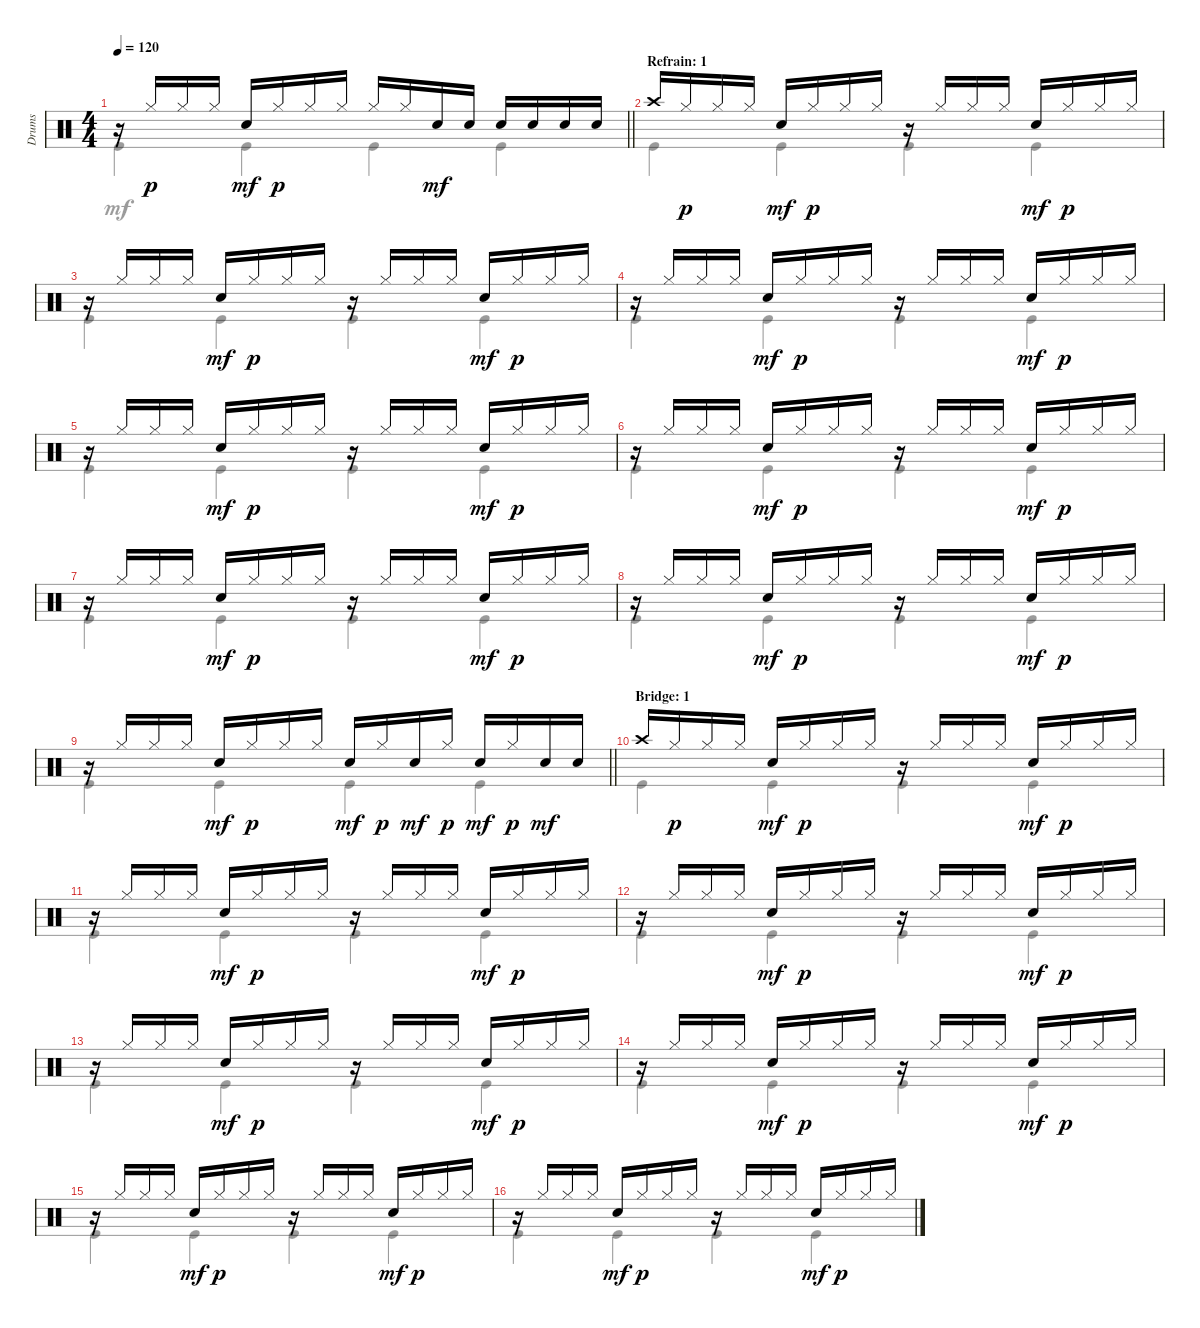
\track ("Drums" "Drums") {instrument percussion}
\staff {score}
\articulation defaults
\voice
\ts (4 4)
\tempo 120
\clef neutral
\barLineRight lightlight
\ks c
r.16{dy p} "Hi-Hat (closed)".16 "Hi-Hat (closed)".16 "Hi-Hat (closed)".16 "Snare (hit) 2".16{dy mf} "Hi-Hat (closed)".16{dy p} "Hi-Hat (closed)".16 "Hi-Hat (closed)".16 "Hi-Hat (closed)".16 "Hi-Hat (closed)".16 "Snare (hit) 2".16{dy mf} "Snare (hit) 2".16 "Snare (hit) 2".16 "Snare (hit) 2".16 "Snare (hit) 2".16 "Snare (hit) 2".16 |
\section ("" "Refrain: 1")
"Crash high (hit)".16 "Hi-Hat (closed)".16{dy p} "Hi-Hat (closed)".16 "Hi-Hat (closed)".16 "Snare (hit) 2".16{dy mf} "Hi-Hat (closed)".16{dy p} "Hi-Hat (closed)".16 "Hi-Hat (closed)".16 r.16 "Hi-Hat (closed)".16 "Hi-Hat (closed)".16 "Hi-Hat (closed)".16 "Snare (hit) 2".16{dy mf} "Hi-Hat (closed)".16{dy p} "Hi-Hat (closed)".16 "Hi-Hat (closed)".16 |
r.16 "Hi-Hat (closed)".16 "Hi-Hat (closed)".16 "Hi-Hat (closed)".16 "Snare (hit) 2".16{dy mf} "Hi-Hat (closed)".16{dy p} "Hi-Hat (closed)".16 "Hi-Hat (closed)".16 r.16 "Hi-Hat (closed)".16 "Hi-Hat (closed)".16 "Hi-Hat (closed)".16 "Snare (hit) 2".16{dy mf} "Hi-Hat (closed)".16{dy p} "Hi-Hat (closed)".16 "Hi-Hat (closed)".16 |
r.16 "Hi-Hat (closed)".16 "Hi-Hat (closed)".16 "Hi-Hat (closed)".16 "Snare (hit) 2".16{dy mf} "Hi-Hat (closed)".16{dy p} "Hi-Hat (closed)".16 "Hi-Hat (closed)".16 r.16 "Hi-Hat (closed)".16 "Hi-Hat (closed)".16 "Hi-Hat (closed)".16 "Snare (hit) 2".16{dy mf} "Hi-Hat (closed)".16{dy p} "Hi-Hat (closed)".16 "Hi-Hat (closed)".16 |
r.16 "Hi-Hat (closed)".16 "Hi-Hat (closed)".16 "Hi-Hat (closed)".16 "Snare (hit) 2".16{dy mf} "Hi-Hat (closed)".16{dy p} "Hi-Hat (closed)".16 "Hi-Hat (closed)".16 r.16 "Hi-Hat (closed)".16 "Hi-Hat (closed)".16 "Hi-Hat (closed)".16 "Snare (hit) 2".16{dy mf} "Hi-Hat (closed)".16{dy p} "Hi-Hat (closed)".16 "Hi-Hat (closed)".16 |
r.16 "Hi-Hat (closed)".16 "Hi-Hat (closed)".16 "Hi-Hat (closed)".16 "Snare (hit) 2".16{dy mf} "Hi-Hat (closed)".16{dy p} "Hi-Hat (closed)".16 "Hi-Hat (closed)".16 r.16 "Hi-Hat (closed)".16 "Hi-Hat (closed)".16 "Hi-Hat (closed)".16 "Snare (hit) 2".16{dy mf} "Hi-Hat (closed)".16{dy p} "Hi-Hat (closed)".16 "Hi-Hat (closed)".16 |
r.16 "Hi-Hat (closed)".16 "Hi-Hat (closed)".16 "Hi-Hat (closed)".16 "Snare (hit) 2".16{dy mf} "Hi-Hat (closed)".16{dy p} "Hi-Hat (closed)".16 "Hi-Hat (closed)".16 r.16 "Hi-Hat (closed)".16 "Hi-Hat (closed)".16 "Hi-Hat (closed)".16 "Snare (hit) 2".16{dy mf} "Hi-Hat (closed)".16{dy p} "Hi-Hat (closed)".16 "Hi-Hat (closed)".16 |
r.16 "Hi-Hat (closed)".16 "Hi-Hat (closed)".16 "Hi-Hat (closed)".16 "Snare (hit) 2".16{dy mf} "Hi-Hat (closed)".16{dy p} "Hi-Hat (closed)".16 "Hi-Hat (closed)".16 r.16 "Hi-Hat (closed)".16 "Hi-Hat (closed)".16 "Hi-Hat (closed)".16 "Snare (hit) 2".16{dy mf} "Hi-Hat (closed)".16{dy p} "Hi-Hat (closed)".16 "Hi-Hat (closed)".16 |
\barLineRight lightlight
r.16 "Hi-Hat (closed)".16 "Hi-Hat (closed)".16 "Hi-Hat (closed)".16 "Snare (hit) 2".16{dy mf} "Hi-Hat (closed)".16{dy p} "Hi-Hat (closed)".16 "Hi-Hat (closed)".16 "Snare (hit) 2".16{dy mf} "Hi-Hat (closed)".16{dy p} "Snare (hit) 2".16{dy mf} "Hi-Hat (closed)".16{dy p} "Snare (hit) 2".16{dy mf} "Hi-Hat (closed)".16{dy p} "Snare (hit) 2".16{dy mf} "Snare (hit) 2".16 |
\section ("" "Bridge: 1")
"Crash high (hit)".16 "Hi-Hat (closed)".16{dy p} "Hi-Hat (closed)".16 "Hi-Hat (closed)".16 "Snare (hit) 2".16{dy mf} "Hi-Hat (closed)".16{dy p} "Hi-Hat (closed)".16 "Hi-Hat (closed)".16 r.16 "Hi-Hat (closed)".16 "Hi-Hat (closed)".16 "Hi-Hat (closed)".16 "Snare (hit) 2".16{dy mf} "Hi-Hat (closed)".16{dy p} "Hi-Hat (closed)".16 "Hi-Hat (closed)".16 |
r.16 "Hi-Hat (closed)".16 "Hi-Hat (closed)".16 "Hi-Hat (closed)".16 "Snare (hit) 2".16{dy mf} "Hi-Hat (closed)".16{dy p} "Hi-Hat (closed)".16 "Hi-Hat (closed)".16 r.16 "Hi-Hat (closed)".16 "Hi-Hat (closed)".16 "Hi-Hat (closed)".16 "Snare (hit) 2".16{dy mf} "Hi-Hat (closed)".16{dy p} "Hi-Hat (closed)".16 "Hi-Hat (closed)".16 |
r.16 "Hi-Hat (closed)".16 "Hi-Hat (closed)".16 "Hi-Hat (closed)".16 "Snare (hit) 2".16{dy mf} "Hi-Hat (closed)".16{dy p} "Hi-Hat (closed)".16 "Hi-Hat (closed)".16 r.16 "Hi-Hat (closed)".16 "Hi-Hat (closed)".16 "Hi-Hat (closed)".16 "Snare (hit) 2".16{dy mf} "Hi-Hat (closed)".16{dy p} "Hi-Hat (closed)".16 "Hi-Hat (closed)".16 |
r.16 "Hi-Hat (closed)".16 "Hi-Hat (closed)".16 "Hi-Hat (closed)".16 "Snare (hit) 2".16{dy mf} "Hi-Hat (closed)".16{dy p} "Hi-Hat (closed)".16 "Hi-Hat (closed)".16 r.16 "Hi-Hat (closed)".16 "Hi-Hat (closed)".16 "Hi-Hat (closed)".16 "Snare (hit) 2".16{dy mf} "Hi-Hat (closed)".16{dy p} "Hi-Hat (closed)".16 "Hi-Hat (closed)".16 |
r.16 "Hi-Hat (closed)".16 "Hi-Hat (closed)".16 "Hi-Hat (closed)".16 "Snare (hit) 2".16{dy mf} "Hi-Hat (closed)".16{dy p} "Hi-Hat (closed)".16 "Hi-Hat (closed)".16 r.16 "Hi-Hat (closed)".16 "Hi-Hat (closed)".16 "Hi-Hat (closed)".16 "Snare (hit) 2".16{dy mf} "Hi-Hat (closed)".16{dy p} "Hi-Hat (closed)".16 "Hi-Hat (closed)".16 |
r.16 "Hi-Hat (closed)".16 "Hi-Hat (closed)".16 "Hi-Hat (closed)".16 "Snare (hit) 2".16{dy mf} "Hi-Hat (closed)".16{dy p} "Hi-Hat (closed)".16 "Hi-Hat (closed)".16 r.16 "Hi-Hat (closed)".16 "Hi-Hat (closed)".16 "Hi-Hat (closed)".16 "Snare (hit) 2".16{dy mf} "Hi-Hat (closed)".16{dy p} "Hi-Hat (closed)".16 "Hi-Hat (closed)".16 |
r.16 "Hi-Hat (closed)".16 "Hi-Hat (closed)".16 "Hi-Hat (closed)".16 "Snare (hit) 2".16{dy mf} "Hi-Hat (closed)".16{dy p} "Hi-Hat (closed)".16 "Hi-Hat (closed)".16 r.16 "Hi-Hat (closed)".16 "Hi-Hat (closed)".16 "Hi-Hat (closed)".16 "Snare (hit) 2".16{dy mf} "Hi-Hat (closed)".16{dy p} "Hi-Hat (closed)".16 "Hi-Hat (closed)".16
\voice
\clef neutral
\ottava regular
\simile none
\barLineRight lightlight
\ks c "Kick (hit)".4{dy mf} "Kick (hit)".4 "Kick (hit)".4 "Kick (hit)".4
|
"Kick (hit)".4 "Kick (hit)".4 "Kick (hit)".4 "Kick (hit)".4 |
"Kick (hit)".4 "Kick (hit)".4 "Kick (hit)".4 "Kick (hit)".4 |
"Kick (hit)".4 "Kick (hit)".4 "Kick (hit)".4 "Kick (hit)".4 |
"Kick (hit)".4 "Kick (hit)".4 "Kick (hit)".4 "Kick (hit)".4 |
"Kick (hit)".4 "Kick (hit)".4 "Kick (hit)".4 "Kick (hit)".4 |
"Kick (hit)".4 "Kick (hit)".4 "Kick (hit)".4 "Kick (hit)".4 |
"Kick (hit)".4 "Kick (hit)".4 "Kick (hit)".4 "Kick (hit)".4 |
\barLineRight lightlight "Kick (hit)".4 "Kick (hit)".4 "Kick (hit)".4 "Kick (hit)".4
|
"Kick (hit)".4 "Kick (hit)".4 "Kick (hit)".4 "Kick (hit)".4 |
"Kick (hit)".4 "Kick (hit)".4 "Kick (hit)".4 "Kick (hit)".4 |
"Kick (hit)".4 "Kick (hit)".4 "Kick (hit)".4 "Kick (hit)".4 |
"Kick (hit)".4 "Kick (hit)".4 "Kick (hit)".4 "Kick (hit)".4 |
"Kick (hit)".4 "Kick (hit)".4 "Kick (hit)".4 "Kick (hit)".4 |
"Kick (hit)".4 "Kick (hit)".4 "Kick (hit)".4 "Kick (hit)".4 |
"Kick (hit)".4 "Kick (hit)".4 "Kick (hit)".4 "Kick (hit)".4
